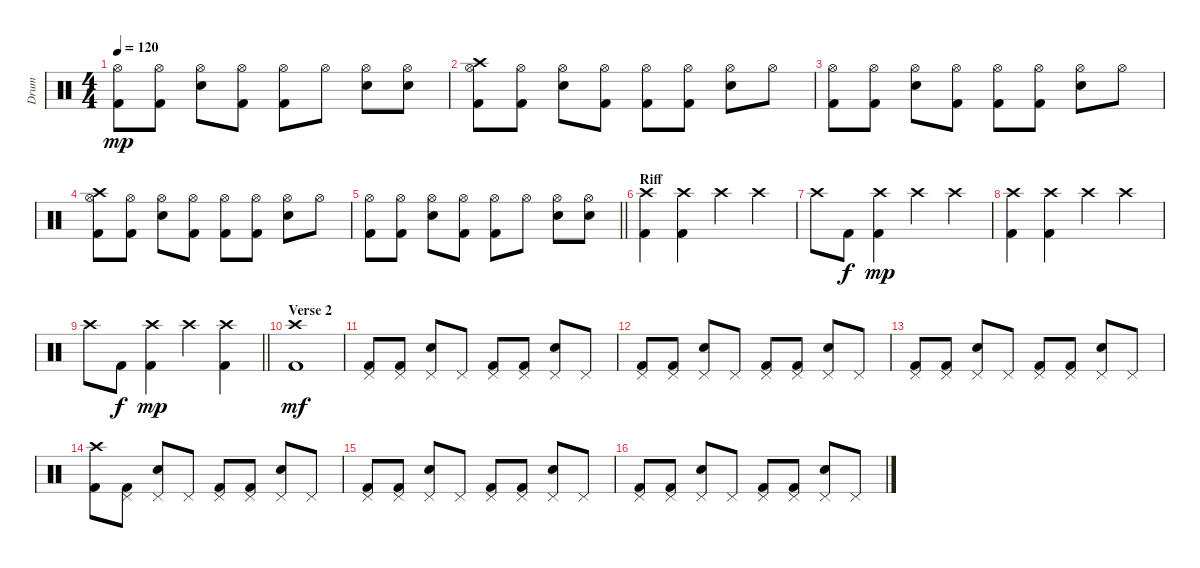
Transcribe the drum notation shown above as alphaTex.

\track ("Drum" "Drum") {instrument percussion}
\staff {score}
\articulation defaults
\ts (4 4)
\tempo 120
\clef neutral
\ks c
("Hi-Hat (open)" "Kick (hit) 2").8{dy mp} ("Hi-Hat (open)" "Kick (hit) 2").8 ("Hi-Hat (open)" "Snare (hit) 2").8 ("Hi-Hat (open)" "Kick (hit) 2").8 ("Hi-Hat (open)" "Kick (hit) 2").8 "Hi-Hat (open)".8 ("Hi-Hat (open)" "Snare (hit) 2").8 ("Hi-Hat (open)" "Snare (hit) 2").8 |
("Hi-Hat (open)" "Crash high (hit)" "Kick (hit) 2").8 ("Hi-Hat (open)" "Kick (hit) 2").8 ("Hi-Hat (open)" "Snare (hit) 2").8 ("Hi-Hat (open)" "Kick (hit) 2").8 ("Hi-Hat (open)" "Kick (hit) 2").8 ("Hi-Hat (open)" "Kick (hit) 2").8 ("Hi-Hat (open)" "Snare (hit) 2").8 "Hi-Hat (open)".8 |
("Hi-Hat (open)" "Kick (hit) 2").8 ("Hi-Hat (open)" "Kick (hit) 2").8 ("Hi-Hat (open)" "Snare (hit) 2").8 ("Hi-Hat (open)" "Kick (hit) 2").8 ("Hi-Hat (open)" "Kick (hit) 2").8 ("Hi-Hat (open)" "Kick (hit) 2").8 ("Hi-Hat (open)" "Snare (hit) 2").8 "Hi-Hat (open)".8 |
("Hi-Hat (open)" "Crash high (hit)" "Kick (hit) 2").8 ("Hi-Hat (open)" "Kick (hit) 2").8 ("Hi-Hat (open)" "Snare (hit) 2").8 ("Hi-Hat (open)" "Kick (hit) 2").8 ("Hi-Hat (open)" "Kick (hit) 2").8 ("Hi-Hat (open)" "Kick (hit) 2").8 ("Hi-Hat (open)" "Snare (hit) 2").8 "Hi-Hat (open)".8 |
\barLineRight lightlight
("Hi-Hat (open)" "Kick (hit) 2").8 ("Hi-Hat (open)" "Kick (hit) 2").8 ("Hi-Hat (open)" "Snare (hit) 2").8 ("Hi-Hat (open)" "Kick (hit) 2").8 ("Hi-Hat (open)" "Kick (hit) 2").8 "Hi-Hat (open)".8 ("Hi-Hat (open)" "Snare (hit) 2").8 ("Hi-Hat (open)" "Snare (hit) 2").8 |
\section ("" "Riff")
("Crash high (hit)" "Kick (hit) 2").4 ("Crash high (hit)" "Kick (hit) 2").4 "Crash high (hit)".4 "Crash high (hit)".4 |
"Crash high (hit)".8 "Kick (hit) 2".8{dy f} ("Crash high (hit)" "Kick (hit) 2").4{dy mp} "Crash high (hit)".4 "Crash high (hit)".4 |
("Crash high (hit)" "Kick (hit) 2").4 ("Crash high (hit)" "Kick (hit) 2").4 "Crash high (hit)".4 "Crash high (hit)".4 |
\barLineRight lightlight "Crash high (hit)".8 "Kick (hit) 2".8{dy f}
("Crash high (hit)" "Kick (hit) 2").4{dy mp} "Crash high (hit)".4 ("Crash high (hit)" "Kick (hit) 2").4 |
\section ("" "Verse 2")
("Crash high (hit)" "Kick (hit) 2").1{dy mf} |
("Pedal Hi-Hat (hit)" "Kick (hit) 2").8 ("Pedal Hi-Hat (hit)" "Kick (hit) 2").8 ("Pedal Hi-Hat (hit)" "Snare (hit) 2").8 "Pedal Hi-Hat (hit)".8 ("Pedal Hi-Hat (hit)" "Kick (hit) 2").8 ("Pedal Hi-Hat (hit)" "Kick (hit) 2").8 ("Pedal Hi-Hat (hit)" "Snare (hit) 2").8 "Pedal Hi-Hat (hit)".8 |
("Pedal Hi-Hat (hit)" "Kick (hit) 2").8 ("Pedal Hi-Hat (hit)" "Kick (hit) 2").8 ("Pedal Hi-Hat (hit)" "Snare (hit) 2").8 "Pedal Hi-Hat (hit)".8 ("Pedal Hi-Hat (hit)" "Kick (hit) 2").8 ("Pedal Hi-Hat (hit)" "Kick (hit) 2").8 ("Pedal Hi-Hat (hit)" "Snare (hit) 2").8 "Pedal Hi-Hat (hit)".8 |
("Pedal Hi-Hat (hit)" "Kick (hit) 2").8 ("Pedal Hi-Hat (hit)" "Kick (hit) 2").8 ("Pedal Hi-Hat (hit)" "Snare (hit) 2").8 "Pedal Hi-Hat (hit)".8 ("Pedal Hi-Hat (hit)" "Kick (hit) 2").8 ("Pedal Hi-Hat (hit)" "Kick (hit) 2").8 ("Pedal Hi-Hat (hit)" "Snare (hit) 2").8 "Pedal Hi-Hat (hit)".8 |
("Crash high (hit)" "Kick (hit) 2").8 ("Pedal Hi-Hat (hit)" "Kick (hit) 2").8 ("Pedal Hi-Hat (hit)" "Snare (hit) 2").8 "Pedal Hi-Hat (hit)".8 ("Pedal Hi-Hat (hit)" "Kick (hit) 2").8 ("Pedal Hi-Hat (hit)" "Kick (hit) 2").8 ("Pedal Hi-Hat (hit)" "Snare (hit) 2").8 "Pedal Hi-Hat (hit)".8 |
("Pedal Hi-Hat (hit)" "Kick (hit) 2").8 ("Pedal Hi-Hat (hit)" "Kick (hit) 2").8 ("Pedal Hi-Hat (hit)" "Snare (hit) 2").8 "Pedal Hi-Hat (hit)".8 ("Pedal Hi-Hat (hit)" "Kick (hit) 2").8 ("Pedal Hi-Hat (hit)" "Kick (hit) 2").8 ("Pedal Hi-Hat (hit)" "Snare (hit) 2").8 "Pedal Hi-Hat (hit)".8 |
("Pedal Hi-Hat (hit)" "Kick (hit) 2").8 ("Pedal Hi-Hat (hit)" "Kick (hit) 2").8 ("Pedal Hi-Hat (hit)" "Snare (hit) 2").8 "Pedal Hi-Hat (hit)".8 ("Pedal Hi-Hat (hit)" "Kick (hit) 2").8 ("Pedal Hi-Hat (hit)" "Kick (hit) 2").8 ("Pedal Hi-Hat (hit)" "Snare (hit) 2").8 "Pedal Hi-Hat (hit)".8
